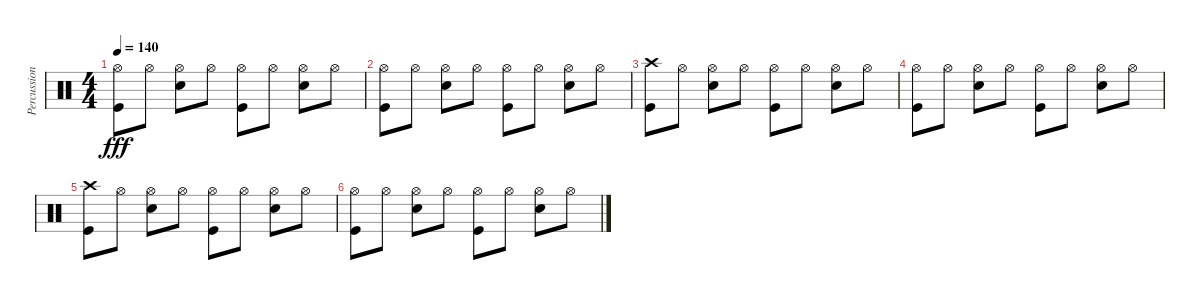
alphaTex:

\track ("Percussion" "Percussion") {instrument percussion}
\staff {score}
\articulation defaults
\ts (4 4)
\tempo 140
\clef neutral
\ks c
("Hi-Hat (open)" "Kick (hit)").8{dy fff} "Hi-Hat (open)".8 ("Hi-Hat (open)" "Snare (hit) 2").8 "Hi-Hat (open)".8 ("Hi-Hat (open)" "Kick (hit)").8 "Hi-Hat (open)".8 ("Hi-Hat (open)" "Snare (hit) 2").8 "Hi-Hat (open)".8 |
("Hi-Hat (open)" "Kick (hit)").8 "Hi-Hat (open)".8 ("Hi-Hat (open)" "Snare (hit) 2").8 "Hi-Hat (open)".8 ("Hi-Hat (open)" "Kick (hit)").8 "Hi-Hat (open)".8 ("Hi-Hat (open)" "Snare (hit) 2").8 "Hi-Hat (open)".8 |
("Crash high (hit)" "Kick (hit)").8 "Hi-Hat (open)".8 ("Hi-Hat (open)" "Snare (hit) 2").8 "Hi-Hat (open)".8 ("Hi-Hat (open)" "Kick (hit)").8 "Hi-Hat (open)".8 ("Hi-Hat (open)" "Snare (hit) 2").8 "Hi-Hat (open)".8 |
("Hi-Hat (open)" "Kick (hit)").8 "Hi-Hat (open)".8 ("Hi-Hat (open)" "Snare (hit) 2").8 "Hi-Hat (open)".8 ("Hi-Hat (open)" "Kick (hit)").8 "Hi-Hat (open)".8 ("Hi-Hat (open)" "Snare (hit) 2").8 "Hi-Hat (open)".8 |
("Crash high (hit)" "Kick (hit)").8 "Hi-Hat (open)".8 ("Hi-Hat (open)" "Snare (hit) 2").8 "Hi-Hat (open)".8 ("Hi-Hat (open)" "Kick (hit)").8 "Hi-Hat (open)".8 ("Hi-Hat (open)" "Snare (hit) 2").8 "Hi-Hat (open)".8 |
("Hi-Hat (open)" "Kick (hit)").8 "Hi-Hat (open)".8 ("Hi-Hat (open)" "Snare (hit) 2").8 "Hi-Hat (open)".8 ("Hi-Hat (open)" "Kick (hit)").8 "Hi-Hat (open)".8 ("Hi-Hat (open)" "Snare (hit) 2").8 "Hi-Hat (open)".8
